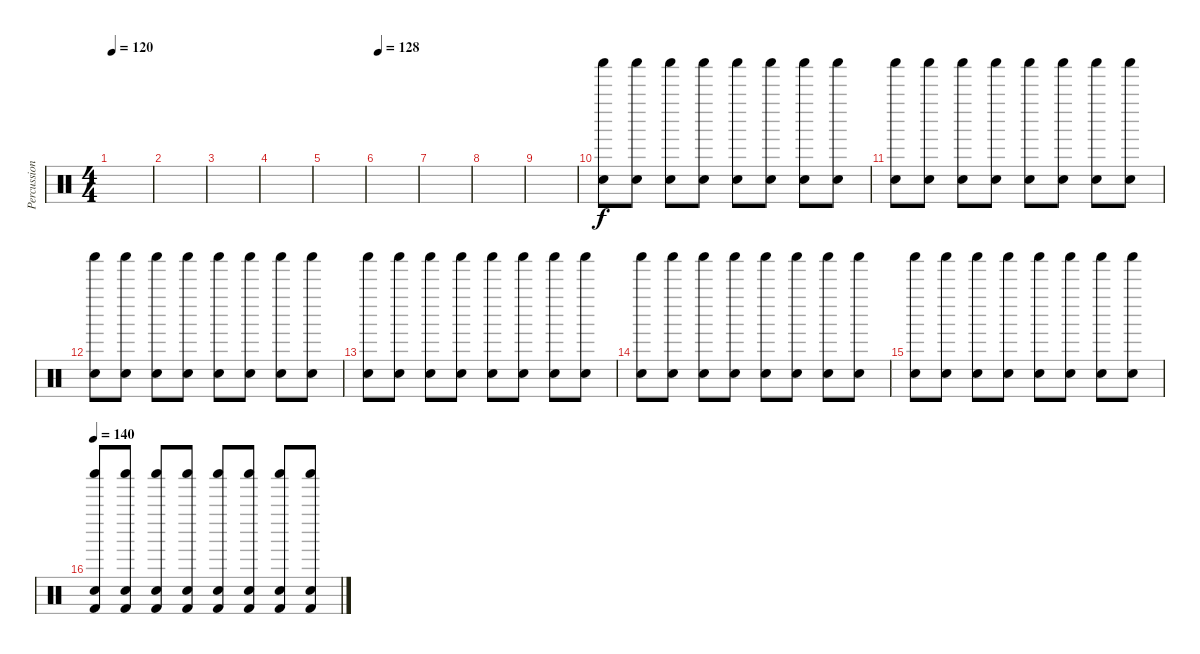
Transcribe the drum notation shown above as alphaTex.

\track ("Percussions" "Percussion") {instrument percussion}
\staff {score}
\articulation defaults
\ts (4 4)
\tempo 120
\clef neutral
\ks c
|
|
|
|
|
\tempo 128
|
|
|
|
("Snare (hit) 2" "Shaker (hit)").8{volume 8} ("Snare (hit) 2" "Shaker (hit)").8 ("Snare (hit) 2" "Shaker (hit)").8 ("Snare (hit) 2" "Shaker (hit)").8 ("Snare (hit) 2" "Shaker (hit)").8 ("Snare (hit) 2" "Shaker (hit)").8 ("Snare (hit) 2" "Shaker (hit)").8 ("Snare (hit) 2" "Shaker (hit)").8 |
("Snare (hit) 2" "Shaker (hit)").8 ("Snare (hit) 2" "Shaker (hit)").8 ("Snare (hit) 2" "Shaker (hit)").8 ("Snare (hit) 2" "Shaker (hit)").8 ("Snare (hit) 2" "Shaker (hit)").8 ("Snare (hit) 2" "Shaker (hit)").8 ("Snare (hit) 2" "Shaker (hit)").8 ("Snare (hit) 2" "Shaker (hit)").8 |
("Snare (hit) 2" "Shaker (hit)").8 ("Snare (hit) 2" "Shaker (hit)").8 ("Snare (hit) 2" "Shaker (hit)").8 ("Snare (hit) 2" "Shaker (hit)").8 ("Snare (hit) 2" "Shaker (hit)").8 ("Snare (hit) 2" "Shaker (hit)").8 ("Snare (hit) 2" "Shaker (hit)").8 ("Snare (hit) 2" "Shaker (hit)").8 |
("Snare (hit) 2" "Shaker (hit)").8 ("Snare (hit) 2" "Shaker (hit)").8 ("Snare (hit) 2" "Shaker (hit)").8 ("Snare (hit) 2" "Shaker (hit)").8 ("Snare (hit) 2" "Shaker (hit)").8 ("Snare (hit) 2" "Shaker (hit)").8 ("Snare (hit) 2" "Shaker (hit)").8 ("Snare (hit) 2" "Shaker (hit)").8 |
("Snare (hit) 2" "Shaker (hit)").8 ("Snare (hit) 2" "Shaker (hit)").8 ("Snare (hit) 2" "Shaker (hit)").8 ("Snare (hit) 2" "Shaker (hit)").8 ("Snare (hit) 2" "Shaker (hit)").8 ("Snare (hit) 2" "Shaker (hit)").8 ("Snare (hit) 2" "Shaker (hit)").8 ("Snare (hit) 2" "Shaker (hit)").8 |
("Snare (hit) 2" "Shaker (hit)").8 ("Snare (hit) 2" "Shaker (hit)").8 ("Snare (hit) 2" "Shaker (hit)").8 ("Snare (hit) 2" "Shaker (hit)").8 ("Snare (hit) 2" "Shaker (hit)").8 ("Snare (hit) 2" "Shaker (hit)").8 ("Snare (hit) 2" "Shaker (hit)").8 ("Snare (hit) 2" "Shaker (hit)").8 |
\tempo 140
("Snare (hit) 2" "Kick (hit) 2" "Shaker (hit)").8{volume 14} ("Snare (hit) 2" "Kick (hit) 2" "Shaker (hit)").8 ("Snare (hit) 2" "Kick (hit) 2" "Shaker (hit)").8 ("Snare (hit) 2" "Kick (hit) 2" "Shaker (hit)").8 ("Snare (hit) 2" "Kick (hit) 2" "Shaker (hit)").8 ("Snare (hit) 2" "Kick (hit) 2" "Shaker (hit)").8 ("Snare (hit) 2" "Kick (hit) 2" "Shaker (hit)").8 ("Snare (hit) 2" "Kick (hit) 2" "Shaker (hit)").8
